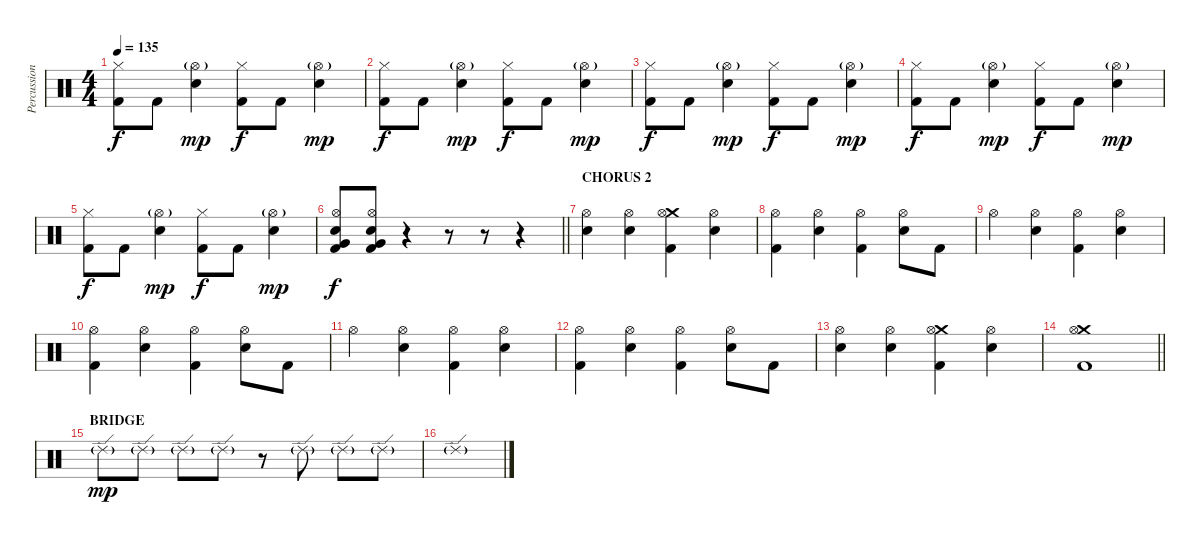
\track ("Percussion" "Percussion") {instrument percussion}
\staff {score}
\articulation defaults
\ts (4 4)
\tempo 135
\clef neutral
\ks c
("Hi-Hat (closed)" "Kick (hit) 2").8{dy f} "Kick (hit) 2".8 ("Hi-Hat (open)"{g} "Electric Snare (hit)").4{dy mp} ("Hi-Hat (closed)" "Kick (hit) 2").8{dy f} "Kick (hit) 2".8 ("Hi-Hat (open)"{g} "Electric Snare (hit)").4{dy mp} |
("Hi-Hat (closed)" "Kick (hit) 2").8{dy f} "Kick (hit) 2".8 ("Hi-Hat (open)"{g} "Electric Snare (hit)").4{dy mp} ("Hi-Hat (closed)" "Kick (hit) 2").8{dy f} "Kick (hit) 2".8 ("Hi-Hat (open)"{g} "Electric Snare (hit)").4{dy mp} |
("Hi-Hat (closed)" "Kick (hit) 2").8{dy f} "Kick (hit) 2".8 ("Hi-Hat (open)"{g} "Electric Snare (hit)").4{dy mp} ("Hi-Hat (closed)" "Kick (hit) 2").8{dy f} "Kick (hit) 2".8 ("Hi-Hat (open)"{g} "Electric Snare (hit)").4{dy mp} |
("Hi-Hat (closed)" "Kick (hit) 2").8{dy f} "Kick (hit) 2".8 ("Hi-Hat (open)"{g} "Electric Snare (hit)").4{dy mp} ("Hi-Hat (closed)" "Kick (hit) 2").8{dy f} "Kick (hit) 2".8 ("Hi-Hat (open)"{g} "Electric Snare (hit)").4{dy mp} |
("Hi-Hat (closed)" "Kick (hit) 2").8{dy f} "Kick (hit) 2".8 ("Hi-Hat (open)"{g} "Electric Snare (hit)").4{dy mp} ("Hi-Hat (closed)" "Kick (hit) 2").8{dy f} "Kick (hit) 2".8 ("Hi-Hat (open)"{g} "Electric Snare (hit)").4{dy mp} |
\barLineRight lightlight
("Very Low Tom (hit)" "Hi-Hat (open)" "Kick (hit) 2" "Electric Snare (hit)").8{dy f} ("Very Low Tom (hit)" "Hi-Hat (open)" "Kick (hit) 2" "Electric Snare (hit)").8 r.4 r.8 r.8 r.4 |
\section ("" "CHORUS 2")
("Hi-Hat (open)" "Electric Snare (hit)").4 ("Hi-Hat (open)" "Electric Snare (hit)").4 ("Crash medium (hit)" "Hi-Hat (open)" "Kick (hit) 2").4 ("Hi-Hat (open)" "Electric Snare (hit)").4 |
("Hi-Hat (open)" "Kick (hit) 2").4 ("Hi-Hat (open)" "Electric Snare (hit)").4 ("Hi-Hat (open)" "Kick (hit) 2").4 ("Hi-Hat (open)" "Electric Snare (hit)").8 "Kick (hit) 2".8 |
"Hi-Hat (open)".4 ("Hi-Hat (open)" "Electric Snare (hit)").4 ("Hi-Hat (open)" "Kick (hit) 2").4 ("Hi-Hat (open)" "Electric Snare (hit)").4 |
("Hi-Hat (open)" "Kick (hit) 2").4 ("Hi-Hat (open)" "Electric Snare (hit)").4 ("Hi-Hat (open)" "Kick (hit) 2").4 ("Hi-Hat (open)" "Electric Snare (hit)").8 "Kick (hit) 2".8 |
"Hi-Hat (open)".4 ("Hi-Hat (open)" "Electric Snare (hit)").4 ("Hi-Hat (open)" "Kick (hit) 2").4 ("Hi-Hat (open)" "Electric Snare (hit)").4 |
("Hi-Hat (open)" "Kick (hit) 2").4 ("Hi-Hat (open)" "Electric Snare (hit)").4 ("Hi-Hat (open)" "Kick (hit) 2").4 ("Hi-Hat (open)" "Electric Snare (hit)").8 "Kick (hit) 2".8 |
("Hi-Hat (open)" "Electric Snare (hit)").4 ("Hi-Hat (open)" "Electric Snare (hit)").4 ("Crash medium (hit)" "Hi-Hat (open)" "Kick (hit) 2").4 ("Hi-Hat (open)" "Electric Snare (hit)").4 |
\barLineRight lightlight
("Crash medium (hit)" "Hi-Hat (open)" "Kick (hit) 2").1 |
\section ("" "BRIDGE")
"Ride (edge) 2"{g}.8{dy mp} "Ride (edge) 2"{g}.8 "Ride (edge) 2"{g}.8 "Ride (edge) 2"{g}.8 r.8 "Ride (edge) 2"{g}.8 "Ride (edge) 2"{g}.8 "Ride (edge) 2"{g}.8 |
"Ride (edge) 2"{g}.1
